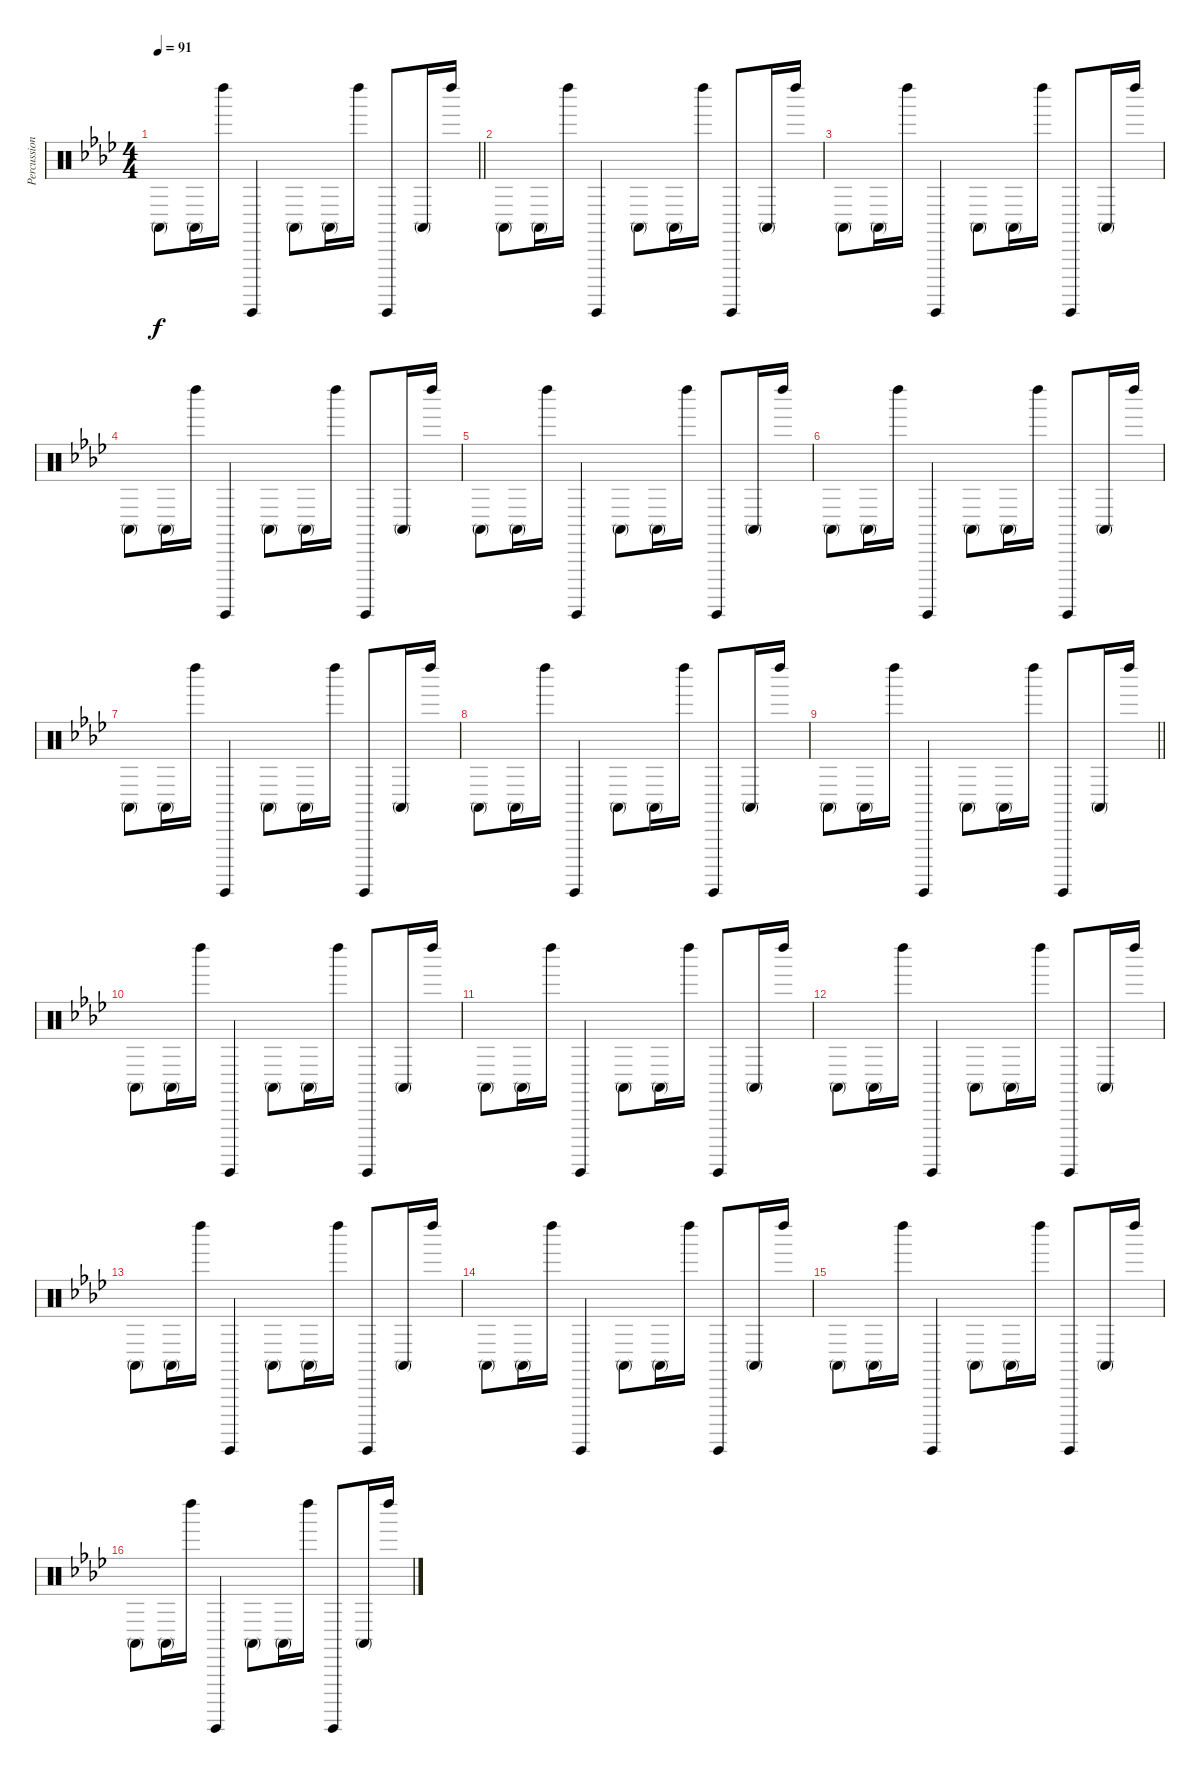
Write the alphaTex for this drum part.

\track ("Percussion" "Percussion") {instrument percussion}
\staff {score}
\articulation defaults
\ts (4 4)
\tempo 91
\clef neutral
\barLineRight lightlight
\ks fminor "Conga high (mute)".8{dy f} "Conga high (mute)".16 "Left Maraca (hit)".16 "Guiro (hit)".4 "Conga high (mute)".8 "Conga high (mute)".16 "Left Maraca (hit)".16 "Guiro (hit)".8 "Conga high (mute)".16 "Left Maraca (hit)".16
|
\section ("" " ")
"Conga high (mute)".8 "Conga high (mute)".16 "Left Maraca (hit)".16 "Guiro (hit)".4 "Conga high (mute)".8 "Conga high (mute)".16 "Left Maraca (hit)".16 "Guiro (hit)".8 "Conga high (mute)".16 "Left Maraca (hit)".16 |
"Conga high (mute)".8 "Conga high (mute)".16 "Left Maraca (hit)".16 "Guiro (hit)".4 "Conga high (mute)".8 "Conga high (mute)".16 "Left Maraca (hit)".16 "Guiro (hit)".8 "Conga high (mute)".16 "Left Maraca (hit)".16 |
"Conga high (mute)".8 "Conga high (mute)".16 "Left Maraca (hit)".16 "Guiro (hit)".4 "Conga high (mute)".8 "Conga high (mute)".16 "Left Maraca (hit)".16 "Guiro (hit)".8 "Conga high (mute)".16 "Left Maraca (hit)".16 |
"Conga high (mute)".8 "Conga high (mute)".16 "Left Maraca (hit)".16 "Guiro (hit)".4 "Conga high (mute)".8 "Conga high (mute)".16 "Left Maraca (hit)".16 "Guiro (hit)".8 "Conga high (mute)".16 "Left Maraca (hit)".16 |
"Conga high (mute)".8 "Conga high (mute)".16 "Left Maraca (hit)".16 "Guiro (hit)".4 "Conga high (mute)".8 "Conga high (mute)".16 "Left Maraca (hit)".16 "Guiro (hit)".8 "Conga high (mute)".16 "Left Maraca (hit)".16 |
"Conga high (mute)".8 "Conga high (mute)".16 "Left Maraca (hit)".16 "Guiro (hit)".4 "Conga high (mute)".8 "Conga high (mute)".16 "Left Maraca (hit)".16 "Guiro (hit)".8 "Conga high (mute)".16 "Left Maraca (hit)".16 |
"Conga high (mute)".8 "Conga high (mute)".16 "Left Maraca (hit)".16 "Guiro (hit)".4 "Conga high (mute)".8 "Conga high (mute)".16 "Left Maraca (hit)".16 "Guiro (hit)".8 "Conga high (mute)".16 "Left Maraca (hit)".16 |
\barLineRight lightlight "Conga high (mute)".8 "Conga high (mute)".16 "Left Maraca (hit)".16 "Guiro (hit)".4 "Conga high (mute)".8 "Conga high (mute)".16 "Left Maraca (hit)".16 "Guiro (hit)".8 "Conga high (mute)".16 "Left Maraca (hit)".16
|
\section ("" " ")
"Conga high (mute)".8 "Conga high (mute)".16 "Left Maraca (hit)".16 "Guiro (hit)".4 "Conga high (mute)".8 "Conga high (mute)".16 "Left Maraca (hit)".16 "Guiro (hit)".8 "Conga high (mute)".16 "Left Maraca (hit)".16 |
"Conga high (mute)".8 "Conga high (mute)".16 "Left Maraca (hit)".16 "Guiro (hit)".4 "Conga high (mute)".8 "Conga high (mute)".16 "Left Maraca (hit)".16 "Guiro (hit)".8 "Conga high (mute)".16 "Left Maraca (hit)".16 |
"Conga high (mute)".8 "Conga high (mute)".16 "Left Maraca (hit)".16 "Guiro (hit)".4 "Conga high (mute)".8 "Conga high (mute)".16 "Left Maraca (hit)".16 "Guiro (hit)".8 "Conga high (mute)".16 "Left Maraca (hit)".16 |
"Conga high (mute)".8 "Conga high (mute)".16 "Left Maraca (hit)".16 "Guiro (hit)".4 "Conga high (mute)".8 "Conga high (mute)".16 "Left Maraca (hit)".16 "Guiro (hit)".8 "Conga high (mute)".16 "Left Maraca (hit)".16 |
"Conga high (mute)".8 "Conga high (mute)".16 "Left Maraca (hit)".16 "Guiro (hit)".4 "Conga high (mute)".8 "Conga high (mute)".16 "Left Maraca (hit)".16 "Guiro (hit)".8 "Conga high (mute)".16 "Left Maraca (hit)".16 |
"Conga high (mute)".8 "Conga high (mute)".16 "Left Maraca (hit)".16 "Guiro (hit)".4 "Conga high (mute)".8 "Conga high (mute)".16 "Left Maraca (hit)".16 "Guiro (hit)".8 "Conga high (mute)".16 "Left Maraca (hit)".16 |
"Conga high (mute)".8 "Conga high (mute)".16 "Left Maraca (hit)".16 "Guiro (hit)".4 "Conga high (mute)".8 "Conga high (mute)".16 "Left Maraca (hit)".16 "Guiro (hit)".8 "Conga high (mute)".16 "Left Maraca (hit)".16
